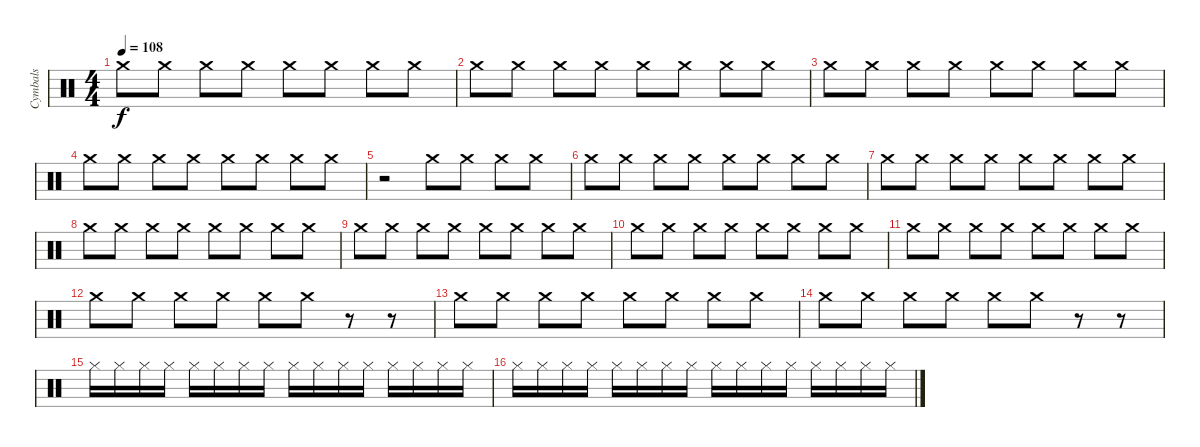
\track ("Cymbals" "Cymbals") {instrument percussion}
\staff {score}
\articulation defaults
\ts (4 4)
\tempo 108
\clef neutral
\ks c "Crash medium (hit)".8{dy f} "Crash medium (hit)".8 "Crash medium (hit)".8 "Crash medium (hit)".8 "Crash medium (hit)".8 "Crash medium (hit)".8 "Crash medium (hit)".8 "Crash medium (hit)".8
|
"Crash medium (hit)".8 "Crash medium (hit)".8 "Crash medium (hit)".8 "Crash medium (hit)".8 "Crash medium (hit)".8 "Crash medium (hit)".8 "Crash medium (hit)".8 "Crash medium (hit)".8 |
"Crash medium (hit)".8 "Crash medium (hit)".8 "Crash medium (hit)".8 "Crash medium (hit)".8 "Crash medium (hit)".8 "Crash medium (hit)".8 "Crash medium (hit)".8 "Crash medium (hit)".8 |
"Crash medium (hit)".8 "Crash medium (hit)".8 "Crash medium (hit)".8 "Crash medium (hit)".8 "Crash medium (hit)".8 "Crash medium (hit)".8 "Crash medium (hit)".8 "Crash medium (hit)".8 |
r.2 "Crash medium (hit)".8 "Crash medium (hit)".8 "Crash medium (hit)".8 "Crash medium (hit)".8 |
"Crash medium (hit)".8 "Crash medium (hit)".8 "Crash medium (hit)".8 "Crash medium (hit)".8 "Crash medium (hit)".8 "Crash medium (hit)".8 "Crash medium (hit)".8 "Crash medium (hit)".8 |
"Crash medium (hit)".8 "Crash medium (hit)".8 "Crash medium (hit)".8 "Crash medium (hit)".8 "Crash medium (hit)".8 "Crash medium (hit)".8 "Crash medium (hit)".8 "Crash medium (hit)".8 |
"Crash medium (hit)".8 "Crash medium (hit)".8 "Crash medium (hit)".8 "Crash medium (hit)".8 "Crash medium (hit)".8 "Crash medium (hit)".8 "Crash medium (hit)".8 "Crash medium (hit)".8 |
"Crash medium (hit)".8 "Crash medium (hit)".8 "Crash medium (hit)".8 "Crash medium (hit)".8 "Crash medium (hit)".8 "Crash medium (hit)".8 "Crash medium (hit)".8 "Crash medium (hit)".8 |
"Crash medium (hit)".8 "Crash medium (hit)".8 "Crash medium (hit)".8 "Crash medium (hit)".8 "Crash medium (hit)".8 "Crash medium (hit)".8 "Crash medium (hit)".8 "Crash medium (hit)".8 |
"Crash medium (hit)".8 "Crash medium (hit)".8 "Crash medium (hit)".8 "Crash medium (hit)".8 "Crash medium (hit)".8 "Crash medium (hit)".8 "Crash medium (hit)".8 "Crash medium (hit)".8 |
"Crash medium (hit)".8 "Crash medium (hit)".8 "Crash medium (hit)".8 "Crash medium (hit)".8 "Crash medium (hit)".8 "Crash medium (hit)".8 r.8 r.8 |
"Crash medium (hit)".8 "Crash medium (hit)".8 "Crash medium (hit)".8 "Crash medium (hit)".8 "Crash medium (hit)".8 "Crash medium (hit)".8 "Crash medium (hit)".8 "Crash medium (hit)".8 |
"Crash medium (hit)".8 "Crash medium (hit)".8 "Crash medium (hit)".8 "Crash medium (hit)".8 "Crash medium (hit)".8 "Crash medium (hit)".8 r.8 r.8 |
"Hi-Hat (closed)".16 "Hi-Hat (closed)".16 "Hi-Hat (closed)".16 "Hi-Hat (closed)".16 "Hi-Hat (closed)".16 "Hi-Hat (closed)".16 "Hi-Hat (closed)".16 "Hi-Hat (closed)".16 "Hi-Hat (closed)".16 "Hi-Hat (closed)".16 "Hi-Hat (closed)".16 "Hi-Hat (closed)".16 "Hi-Hat (closed)".16 "Hi-Hat (closed)".16 "Hi-Hat (closed)".16 "Hi-Hat (closed)".16 |
"Hi-Hat (closed)".16 "Hi-Hat (closed)".16 "Hi-Hat (closed)".16 "Hi-Hat (closed)".16 "Hi-Hat (closed)".16 "Hi-Hat (closed)".16 "Hi-Hat (closed)".16 "Hi-Hat (closed)".16 "Hi-Hat (closed)".16 "Hi-Hat (closed)".16 "Hi-Hat (closed)".16 "Hi-Hat (closed)".16 "Hi-Hat (closed)".16 "Hi-Hat (closed)".16 "Hi-Hat (closed)".16 "Hi-Hat (closed)".16
